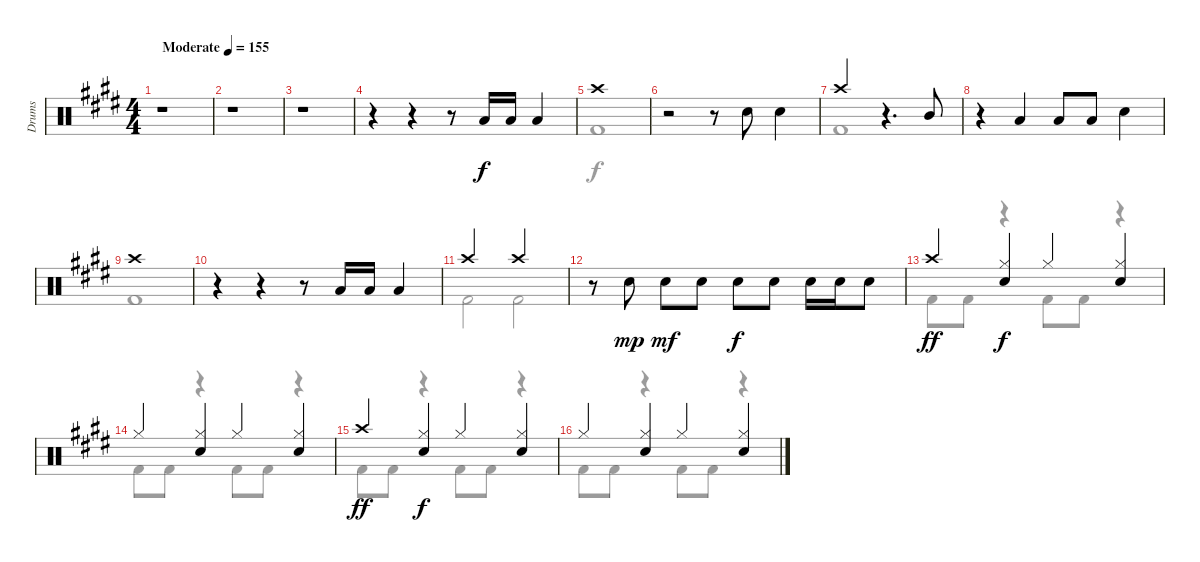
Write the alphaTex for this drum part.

\track ("Drums" "Drums") {instrument percussion}
\staff {score}
\articulation defaults
\voice
\ts (4 4)
\tempo (155 "Moderate")
\clef neutral
\ks e
r.1{dy f} |
r.1 |
r.1 |
r.4 r.4 r.8 "Low Floor Tom (hit)".16 "Low Floor Tom (hit)".16 "Low Floor Tom (hit)".4 |
"Crash high (hit)".1 |
r.2 r.8 "Electric Snare (hit)".8 "Electric Snare (hit)".4 |
"Crash high (hit)".2 r.4{d} "Mid Tom (hit)".8 |
r.4 "Low Tom (hit)".4 "Low Floor Tom (hit)".8 "Low Floor Tom (hit)".8 "Electric Snare (hit)".4 |
"Crash high (hit)".1 |
r.4 r.4 r.8 "Low Floor Tom (hit)".16 "Low Floor Tom (hit)".16 "Low Floor Tom (hit)".4 |
"Crash high (hit)".2 "Crash high (hit)".2 |
r.8 "Electric Snare (hit)".8{dy mp} "Electric Snare (hit)".8{dy mf} "Electric Snare (hit)".8 "Electric Snare (hit)".8{dy f} "Electric Snare (hit)".8 "Electric Snare (hit)".16 "Electric Snare (hit)".16 "Electric Snare (hit)".8 |
"Crash high (hit)".4{dy ff} ("Hi-Hat (closed)" "Electric Snare (hit)").4{dy f} "Hi-Hat (closed)".4 ("Hi-Hat (closed)" "Electric Snare (hit)").4 |
"Hi-Hat (closed)".4 ("Hi-Hat (closed)" "Electric Snare (hit)").4 "Hi-Hat (closed)".4 ("Hi-Hat (closed)" "Electric Snare (hit)").4 |
"Crash high (hit)".4{dy ff} ("Hi-Hat (closed)" "Electric Snare (hit)").4{dy f} "Hi-Hat (closed)".4 ("Hi-Hat (closed)" "Electric Snare (hit)").4 |
"Hi-Hat (closed)".4 ("Hi-Hat (closed)" "Electric Snare (hit)").4 "Hi-Hat (closed)".4 ("Hi-Hat (closed)" "Electric Snare (hit)").4
\voice
\clef neutral
\ottava regular
\simile none
\ks e
|
|
|
|
"Kick (hit) 2".1 |
|
"Kick (hit) 2".1 |
|
"Kick (hit) 2".1 |
|
"Kick (hit) 2".2 "Kick (hit) 2".2 |
|
"Kick (hit) 2".8 "Kick (hit) 2".8 r.4 "Kick (hit) 2".8 "Kick (hit) 2".8 r.4 |
"Kick (hit) 2".8 "Kick (hit) 2".8 r.4 "Kick (hit) 2".8 "Kick (hit) 2".8 r.4 |
"Kick (hit) 2".8 "Kick (hit) 2".8 r.4 "Kick (hit) 2".8 "Kick (hit) 2".8 r.4 |
"Kick (hit) 2".8 "Kick (hit) 2".8 r.4 "Kick (hit) 2".8 "Kick (hit) 2".8 r.4
